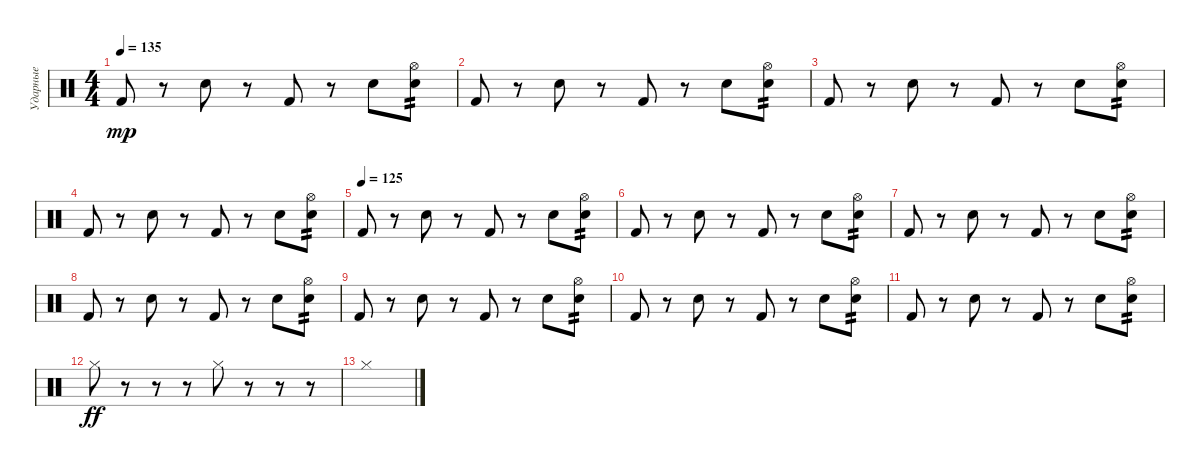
\track ("Ударные" "Ударные") {instrument percussion}
\staff {score}
\articulation defaults
\ts (4 4)
\tempo 130
\tempo 135
\clef neutral
\ks c "Kick (hit) 2".8{dy mp}
r.8 "Snare (hit) 2".8 r.8 "Kick (hit) 2".8 r.8 "Snare (hit) 2".8 ("Snare (hit) 2" "Hi-Hat (open)").8{tp 2} |
"Kick (hit) 2".8 r.8 "Snare (hit) 2".8 r.8 "Kick (hit) 2".8 r.8 "Snare (hit) 2".8 ("Snare (hit) 2" "Hi-Hat (open)").8{tp 2} |
"Kick (hit) 2".8 r.8 "Snare (hit) 2".8 r.8 "Kick (hit) 2".8 r.8 "Snare (hit) 2".8 ("Snare (hit) 2" "Hi-Hat (open)").8{tp 2} |
"Kick (hit) 2".8 r.8 "Snare (hit) 2".8 r.8 "Kick (hit) 2".8 r.8 "Snare (hit) 2".8 ("Snare (hit) 2" "Hi-Hat (open)").8{tp 2} |
\tempo (125)
"Kick (hit) 2".8 r.8 "Snare (hit) 2".8 r.8 "Kick (hit) 2".8 r.8 "Snare (hit) 2".8 ("Snare (hit) 2" "Hi-Hat (open)").8{tp 2} |
"Kick (hit) 2".8 r.8 "Snare (hit) 2".8 r.8 "Kick (hit) 2".8 r.8 "Snare (hit) 2".8 ("Snare (hit) 2" "Hi-Hat (open)").8{tp 2} |
"Kick (hit) 2".8 r.8 "Snare (hit) 2".8 r.8 "Kick (hit) 2".8 r.8 "Snare (hit) 2".8 ("Snare (hit) 2" "Hi-Hat (open)").8{tp 2} |
"Kick (hit) 2".8 r.8 "Snare (hit) 2".8 r.8 "Kick (hit) 2".8 r.8 "Snare (hit) 2".8 ("Snare (hit) 2" "Hi-Hat (open)").8{tp 2} |
"Kick (hit) 2".8 r.8 "Snare (hit) 2".8 r.8 "Kick (hit) 2".8 r.8 "Snare (hit) 2".8 ("Snare (hit) 2" "Hi-Hat (open)").8{tp 2} |
"Kick (hit) 2".8 r.8 "Snare (hit) 2".8 r.8 "Kick (hit) 2".8 r.8 "Snare (hit) 2".8 ("Snare (hit) 2" "Hi-Hat (open)").8{tp 2} |
"Kick (hit) 2".8 r.8 "Snare (hit) 2".8 r.8 "Kick (hit) 2".8 r.8 "Snare (hit) 2".8 ("Snare (hit) 2" "Hi-Hat (open)").8{tp 2} |
"Hi-Hat (closed)".8{dy ff} r.8 r.8 r.8 "Hi-Hat (closed)".8 r.8 r.8 r.8 |
"Hi-Hat (closed)".1
